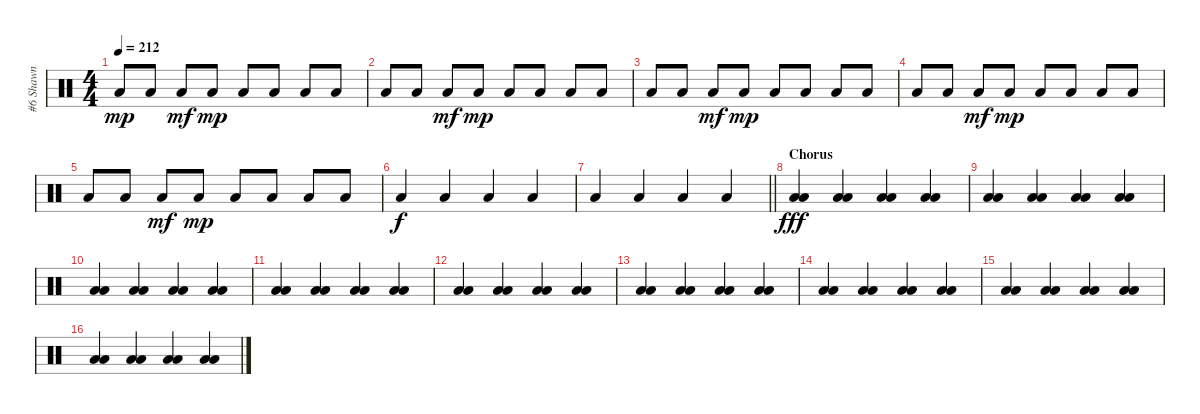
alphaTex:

\track ("#6 Shawn" "#6 Shawn") {instrument percussion}
\staff {score}
\articulation defaults
\ts (4 4)
\tempo 212
\clef neutral
\ks c "Low Floor Tom (hit)".8{dy mp} "Low Floor Tom (hit)".8 "Low Floor Tom (hit)".8{dy mf} "Low Floor Tom (hit)".8{dy mp} "Low Floor Tom (hit)".8 "Low Floor Tom (hit)".8 "Low Floor Tom (hit)".8 "Low Floor Tom (hit)".8
|
"Low Floor Tom (hit)".8 "Low Floor Tom (hit)".8 "Low Floor Tom (hit)".8{dy mf} "Low Floor Tom (hit)".8{dy mp} "Low Floor Tom (hit)".8 "Low Floor Tom (hit)".8 "Low Floor Tom (hit)".8 "Low Floor Tom (hit)".8 |
"Low Floor Tom (hit)".8 "Low Floor Tom (hit)".8 "Low Floor Tom (hit)".8{dy mf} "Low Floor Tom (hit)".8{dy mp} "Low Floor Tom (hit)".8 "Low Floor Tom (hit)".8 "Low Floor Tom (hit)".8 "Low Floor Tom (hit)".8 |
"Low Floor Tom (hit)".8 "Low Floor Tom (hit)".8 "Low Floor Tom (hit)".8{dy mf} "Low Floor Tom (hit)".8{dy mp} "Low Floor Tom (hit)".8 "Low Floor Tom (hit)".8 "Low Floor Tom (hit)".8 "Low Floor Tom (hit)".8 |
"Low Floor Tom (hit)".8 "Low Floor Tom (hit)".8 "Low Floor Tom (hit)".8{dy mf} "Low Floor Tom (hit)".8{dy mp} "Low Floor Tom (hit)".8 "Low Floor Tom (hit)".8 "Low Floor Tom (hit)".8 "Low Floor Tom (hit)".8 |
"Low Floor Tom (hit)".4{dy f} "Low Floor Tom (hit)".4 "Low Floor Tom (hit)".4 "Low Floor Tom (hit)".4 |
\barLineRight lightlight "Low Floor Tom (hit)".4 "Low Floor Tom (hit)".4 "Low Floor Tom (hit)".4 "Low Floor Tom (hit)".4
|
\section ("" "Chorus")
("Low Floor Tom (hit)" "Low Floor Tom (hit)").4{dy fff} ("Low Floor Tom (hit)" "Low Floor Tom (hit)").4 ("Low Floor Tom (hit)" "Low Floor Tom (hit)").4 ("Low Floor Tom (hit)" "Low Floor Tom (hit)").4 |
("Low Floor Tom (hit)" "Low Floor Tom (hit)").4 ("Low Floor Tom (hit)" "Low Floor Tom (hit)").4 ("Low Floor Tom (hit)" "Low Floor Tom (hit)").4 ("Low Floor Tom (hit)" "Low Floor Tom (hit)").4 |
("Low Floor Tom (hit)" "Low Floor Tom (hit)").4 ("Low Floor Tom (hit)" "Low Floor Tom (hit)").4 ("Low Floor Tom (hit)" "Low Floor Tom (hit)").4 ("Low Floor Tom (hit)" "Low Floor Tom (hit)").4 |
("Low Floor Tom (hit)" "Low Floor Tom (hit)").4 ("Low Floor Tom (hit)" "Low Floor Tom (hit)").4 ("Low Floor Tom (hit)" "Low Floor Tom (hit)").4 ("Low Floor Tom (hit)" "Low Floor Tom (hit)").4 |
("Low Floor Tom (hit)" "Low Floor Tom (hit)").4 ("Low Floor Tom (hit)" "Low Floor Tom (hit)").4 ("Low Floor Tom (hit)" "Low Floor Tom (hit)").4 ("Low Floor Tom (hit)" "Low Floor Tom (hit)").4 |
("Low Floor Tom (hit)" "Low Floor Tom (hit)").4 ("Low Floor Tom (hit)" "Low Floor Tom (hit)").4 ("Low Floor Tom (hit)" "Low Floor Tom (hit)").4 ("Low Floor Tom (hit)" "Low Floor Tom (hit)").4 |
("Low Floor Tom (hit)" "Low Floor Tom (hit)").4 ("Low Floor Tom (hit)" "Low Floor Tom (hit)").4 ("Low Floor Tom (hit)" "Low Floor Tom (hit)").4 ("Low Floor Tom (hit)" "Low Floor Tom (hit)").4 |
("Low Floor Tom (hit)" "Low Floor Tom (hit)").4 ("Low Floor Tom (hit)" "Low Floor Tom (hit)").4 ("Low Floor Tom (hit)" "Low Floor Tom (hit)").4 ("Low Floor Tom (hit)" "Low Floor Tom (hit)").4 |
("Low Floor Tom (hit)" "Low Floor Tom (hit)").4 ("Low Floor Tom (hit)" "Low Floor Tom (hit)").4 ("Low Floor Tom (hit)" "Low Floor Tom (hit)").4 ("Low Floor Tom (hit)" "Low Floor Tom (hit)").4
